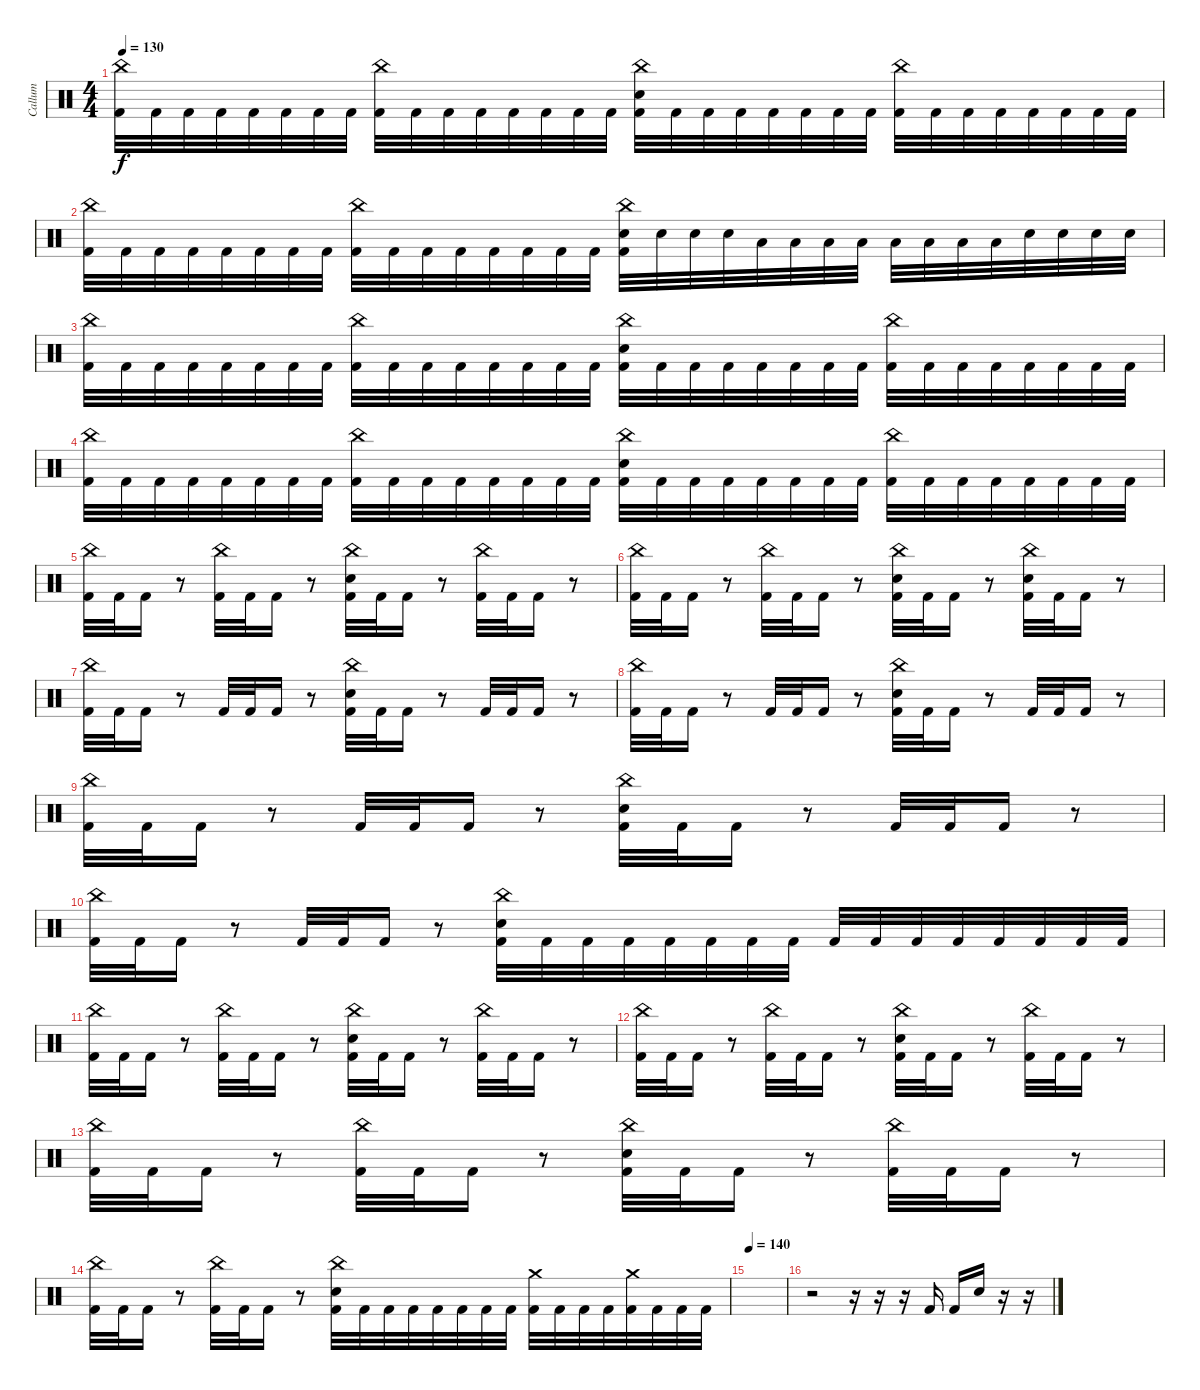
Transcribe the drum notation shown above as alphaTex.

\track ("Callum" "Callum") {instrument percussion}
\staff {score}
\articulation defaults
\ts (4 4)
\tempo 130
\clef neutral
\ks c
("China (hit)" "Kick (hit) 2").32{dy f} "Kick (hit) 2".32 "Kick (hit) 2".32 "Kick (hit) 2".32 "Kick (hit) 2".32 "Kick (hit) 2".32 "Kick (hit) 2".32 "Kick (hit) 2".32 ("China (hit)" "Kick (hit) 2").32 "Kick (hit) 2".32 "Kick (hit) 2".32 "Kick (hit) 2".32 "Kick (hit) 2".32 "Kick (hit) 2".32 "Kick (hit) 2".32 "Kick (hit) 2".32 ("China (hit)" "Electric Snare (hit)" "Kick (hit) 2").32 "Kick (hit) 2".32 "Kick (hit) 2".32 "Kick (hit) 2".32 "Kick (hit) 2".32 "Kick (hit) 2".32 "Kick (hit) 2".32 "Kick (hit) 2".32 ("China (hit)" "Kick (hit) 2").32 "Kick (hit) 2".32 "Kick (hit) 2".32 "Kick (hit) 2".32 "Kick (hit) 2".32 "Kick (hit) 2".32 "Kick (hit) 2".32 "Kick (hit) 2".32 |
("China (hit)" "Kick (hit) 2").32 "Kick (hit) 2".32 "Kick (hit) 2".32 "Kick (hit) 2".32 "Kick (hit) 2".32 "Kick (hit) 2".32 "Kick (hit) 2".32 "Kick (hit) 2".32 ("China (hit)" "Kick (hit) 2").32 "Kick (hit) 2".32 "Kick (hit) 2".32 "Kick (hit) 2".32 "Kick (hit) 2".32 "Kick (hit) 2".32 "Kick (hit) 2".32 "Kick (hit) 2".32 ("China (hit)" "Electric Snare (hit)" "Kick (hit) 2").32 "Electric Snare (hit)".32 "Electric Snare (hit)".32 "Electric Snare (hit)".32 "Low Tom (hit)".32 "Low Tom (hit)".32 "Low Tom (hit)".32 "Low Tom (hit)".32 "Low Floor Tom (hit)".32 "Low Floor Tom (hit)".32 "Low Floor Tom (hit)".32 "Low Floor Tom (hit)".32 "Electric Snare (hit)".32 "Electric Snare (hit)".32 "Electric Snare (hit)".32 "Electric Snare (hit)".32 |
("China (hit)" "Kick (hit) 2").32 "Kick (hit) 2".32 "Kick (hit) 2".32 "Kick (hit) 2".32 "Kick (hit) 2".32 "Kick (hit) 2".32 "Kick (hit) 2".32 "Kick (hit) 2".32 ("China (hit)" "Kick (hit) 2").32 "Kick (hit) 2".32 "Kick (hit) 2".32 "Kick (hit) 2".32 "Kick (hit) 2".32 "Kick (hit) 2".32 "Kick (hit) 2".32 "Kick (hit) 2".32 ("China (hit)" "Electric Snare (hit)" "Kick (hit) 2").32 "Kick (hit) 2".32 "Kick (hit) 2".32 "Kick (hit) 2".32 "Kick (hit) 2".32 "Kick (hit) 2".32 "Kick (hit) 2".32 "Kick (hit) 2".32 ("China (hit)" "Kick (hit) 2").32 "Kick (hit) 2".32 "Kick (hit) 2".32 "Kick (hit) 2".32 "Kick (hit) 2".32 "Kick (hit) 2".32 "Kick (hit) 2".32 "Kick (hit) 2".32 |
("China (hit)" "Kick (hit) 2").32 "Kick (hit) 2".32 "Kick (hit) 2".32 "Kick (hit) 2".32 "Kick (hit) 2".32 "Kick (hit) 2".32 "Kick (hit) 2".32 "Kick (hit) 2".32 ("China (hit)" "Kick (hit) 2").32 "Kick (hit) 2".32 "Kick (hit) 2".32 "Kick (hit) 2".32 "Kick (hit) 2".32 "Kick (hit) 2".32 "Kick (hit) 2".32 "Kick (hit) 2".32 ("China (hit)" "Electric Snare (hit)" "Kick (hit) 2").32 "Kick (hit) 2".32 "Kick (hit) 2".32 "Kick (hit) 2".32 "Kick (hit) 2".32 "Kick (hit) 2".32 "Kick (hit) 2".32 "Kick (hit) 2".32 ("China (hit)" "Kick (hit) 2").32 "Kick (hit) 2".32 "Kick (hit) 2".32 "Kick (hit) 2".32 "Kick (hit) 2".32 "Kick (hit) 2".32 "Kick (hit) 2".32 "Kick (hit) 2".32 |
("China (hit)" "Kick (hit) 2").32 "Kick (hit) 2".32 "Kick (hit) 2".16 r.8 ("China (hit)" "Kick (hit) 2").32 "Kick (hit) 2".32 "Kick (hit) 2".16 r.8 ("China (hit)" "Electric Snare (hit)" "Kick (hit) 2").32 "Kick (hit) 2".32 "Kick (hit) 2".16 r.8 ("China (hit)" "Kick (hit) 2").32 "Kick (hit) 2".32 "Kick (hit) 2".16 r.8 |
("China (hit)" "Kick (hit) 2").32 "Kick (hit) 2".32 "Kick (hit) 2".16 r.8 ("China (hit)" "Kick (hit) 2").32 "Kick (hit) 2".32 "Kick (hit) 2".16 r.8 ("China (hit)" "Electric Snare (hit)" "Kick (hit) 2").32 "Kick (hit) 2".32 "Kick (hit) 2".16 r.8 ("China (hit)" "Electric Snare (hit)" "Kick (hit) 2").32 "Kick (hit) 2".32 "Kick (hit) 2".16 r.8 |
("China (hit)" "Kick (hit) 2").32 "Kick (hit) 2".32 "Kick (hit) 2".16 r.8 "Kick (hit) 2".32 "Kick (hit) 2".32 "Kick (hit) 2".16 r.8 ("China (hit)" "Electric Snare (hit)" "Kick (hit) 2").32 "Kick (hit) 2".32 "Kick (hit) 2".16 r.8 "Kick (hit) 2".32 "Kick (hit) 2".32 "Kick (hit) 2".16 r.8 |
("China (hit)" "Kick (hit) 2").32 "Kick (hit) 2".32 "Kick (hit) 2".16 r.8 "Kick (hit) 2".32 "Kick (hit) 2".32 "Kick (hit) 2".16 r.8 ("China (hit)" "Electric Snare (hit)" "Kick (hit) 2").32 "Kick (hit) 2".32 "Kick (hit) 2".16 r.8 "Kick (hit) 2".32 "Kick (hit) 2".32 "Kick (hit) 2".16 r.8 |
("China (hit)" "Kick (hit) 2").32 "Kick (hit) 2".32 "Kick (hit) 2".16 r.8 "Kick (hit) 2".32 "Kick (hit) 2".32 "Kick (hit) 2".16 r.8 ("China (hit)" "Electric Snare (hit)" "Kick (hit) 2").32 "Kick (hit) 2".32 "Kick (hit) 2".16 r.8 "Kick (hit) 2".32 "Kick (hit) 2".32 "Kick (hit) 2".16 r.8 |
("China (hit)" "Kick (hit) 2").32 "Kick (hit) 2".32 "Kick (hit) 2".16 r.8 "Kick (hit) 2".32 "Kick (hit) 2".32 "Kick (hit) 2".16 r.8 ("China (hit)" "Electric Snare (hit)" "Kick (hit) 2").32 "Kick (hit) 2".32 "Kick (hit) 2".32 "Kick (hit) 2".32 "Kick (hit) 2".32 "Kick (hit) 2".32 "Kick (hit) 2".32 "Kick (hit) 2".32 "Kick (hit) 2".32 "Kick (hit) 2".32 "Kick (hit) 2".32 "Kick (hit) 2".32 "Kick (hit) 2".32 "Kick (hit) 2".32 "Kick (hit) 2".32 "Kick (hit) 2".32 |
("China (hit)" "Kick (hit) 2").32 "Kick (hit) 2".32 "Kick (hit) 2".16 r.8 ("China (hit)" "Kick (hit) 2").32 "Kick (hit) 2".32 "Kick (hit) 2".16 r.8 ("China (hit)" "Electric Snare (hit)" "Kick (hit) 2").32 "Kick (hit) 2".32 "Kick (hit) 2".16 r.8 ("China (hit)" "Kick (hit) 2").32 "Kick (hit) 2".32 "Kick (hit) 2".16 r.8 |
("China (hit)" "Kick (hit) 2").32 "Kick (hit) 2".32 "Kick (hit) 2".16 r.8 ("China (hit)" "Kick (hit) 2").32 "Kick (hit) 2".32 "Kick (hit) 2".16 r.8 ("China (hit)" "Electric Snare (hit)" "Kick (hit) 2").32 "Kick (hit) 2".32 "Kick (hit) 2".16 r.8 ("China (hit)" "Kick (hit) 2").32 "Kick (hit) 2".32 "Kick (hit) 2".16 r.8 |
("China (hit)" "Kick (hit) 2").32 "Kick (hit) 2".32 "Kick (hit) 2".16 r.8 ("China (hit)" "Kick (hit) 2").32 "Kick (hit) 2".32 "Kick (hit) 2".16 r.8 ("China (hit)" "Electric Snare (hit)" "Kick (hit) 2").32 "Kick (hit) 2".32 "Kick (hit) 2".16 r.8 ("China (hit)" "Kick (hit) 2").32 "Kick (hit) 2".32 "Kick (hit) 2".16 r.8 |
("China (hit)" "Kick (hit) 2").32 "Kick (hit) 2".32 "Kick (hit) 2".16 r.8 ("China (hit)" "Kick (hit) 2").32 "Kick (hit) 2".32 "Kick (hit) 2".16 r.8 ("China (hit)" "Electric Snare (hit)" "Kick (hit) 2").32 "Kick (hit) 2".32 "Kick (hit) 2".32 "Kick (hit) 2".32 "Kick (hit) 2".32 "Kick (hit) 2".32 "Kick (hit) 2".32 "Kick (hit) 2".32 ("Crash medium (hit)" "Kick (hit) 2").32 "Kick (hit) 2".32 "Kick (hit) 2".32 "Kick (hit) 2".32 ("Crash medium (hit)" "Kick (hit) 2").32 "Kick (hit) 2".32 "Kick (hit) 2".32 "Kick (hit) 2".32 |
\tempo 140
|
r.2 r.16 r.16 r.16 "Kick (hit) 2".16 "Kick (hit) 2".16 "Electric Snare (hit)".16 r.16 r.16
